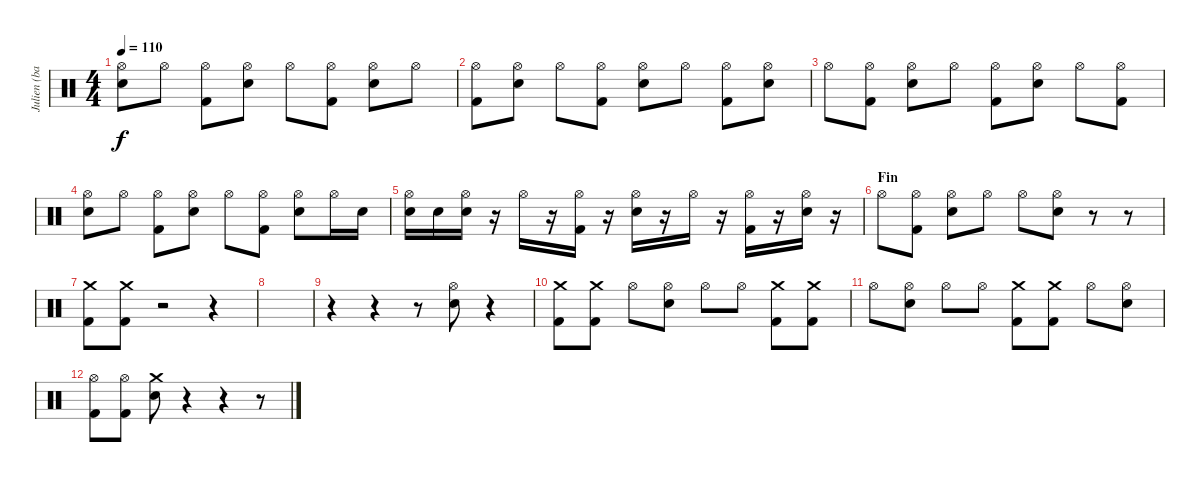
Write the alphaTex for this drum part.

\track ("Julien (batterie)" "Julien (ba") {instrument percussion}
\staff {score}
\articulation defaults
\ts (4 4)
\tempo 110
\clef neutral
\ks c
("Hi-Hat (open)" "Electric Snare (hit)").8{dy f} "Hi-Hat (open)".8 ("Hi-Hat (open)" "Kick (hit) 2").8 ("Hi-Hat (open)" "Electric Snare (hit)").8 "Hi-Hat (open)".8 ("Hi-Hat (open)" "Kick (hit) 2").8 ("Hi-Hat (open)" "Electric Snare (hit)").8 "Hi-Hat (open)".8 |
("Hi-Hat (open)" "Kick (hit) 2").8 ("Hi-Hat (open)" "Electric Snare (hit)").8 "Hi-Hat (open)".8 ("Hi-Hat (open)" "Kick (hit) 2").8 ("Hi-Hat (open)" "Electric Snare (hit)").8 "Hi-Hat (open)".8 ("Hi-Hat (open)" "Kick (hit) 2").8 ("Hi-Hat (open)" "Electric Snare (hit)").8 |
"Hi-Hat (open)".8 ("Hi-Hat (open)" "Kick (hit) 2").8 ("Hi-Hat (open)" "Electric Snare (hit)").8 "Hi-Hat (open)".8 ("Hi-Hat (open)" "Kick (hit) 2").8 ("Hi-Hat (open)" "Electric Snare (hit)").8 "Hi-Hat (open)".8 ("Hi-Hat (open)" "Kick (hit) 2").8 |
("Hi-Hat (open)" "Electric Snare (hit)").8 "Hi-Hat (open)".8 ("Hi-Hat (open)" "Kick (hit) 2").8 ("Hi-Hat (open)" "Electric Snare (hit)").8 "Hi-Hat (open)".8 ("Hi-Hat (open)" "Kick (hit) 2").8 ("Hi-Hat (open)" "Electric Snare (hit)").8 "Hi-Hat (open)".16 "Electric Snare (hit)".16 |
("Hi-Hat (open)" "Electric Snare (hit)").16 "Electric Snare (hit)".16 ("Hi-Hat (open)" "Electric Snare (hit)").16 r.16 "Hi-Hat (open)".16 r.16 ("Hi-Hat (open)" "Kick (hit) 2").16 r.16 ("Hi-Hat (open)" "Electric Snare (hit)").16 r.16 "Hi-Hat (open)".16 r.16 ("Hi-Hat (open)" "Kick (hit) 2").16 r.16 ("Hi-Hat (open)" "Electric Snare (hit)").16 r.16 |
\section ("" "Fin")
"Hi-Hat (open)".8 ("Hi-Hat (open)" "Kick (hit) 2").8 ("Hi-Hat (open)" "Electric Snare (hit)").8 "Hi-Hat (open)".8 "Hi-Hat (open)".8 ("Hi-Hat (open)" "Electric Snare (hit)").8 r.8 r.8 |
("Crash medium (hit)" "Kick (hit) 2").8 ("Crash medium (hit)" "Kick (hit) 2").8 r.2 r.4 |
|
r.4 r.4 r.8 ("Hi-Hat (open)" "Electric Snare (hit)").8 r.4 |
("Crash medium (hit)" "Kick (hit) 2").8 ("Crash medium (hit)" "Kick (hit) 2").8 "Hi-Hat (open)".8 ("Hi-Hat (open)" "Electric Snare (hit)").8 "Hi-Hat (open)".8 "Hi-Hat (open)".8 ("Crash medium (hit)" "Kick (hit) 2").8 ("Crash medium (hit)" "Kick (hit) 2").8 |
"Hi-Hat (open)".8 ("Hi-Hat (open)" "Electric Snare (hit)").8 "Hi-Hat (open)".8 "Hi-Hat (open)".8 ("Crash medium (hit)" "Kick (hit) 2").8 ("Crash medium (hit)" "Kick (hit) 2").8 "Hi-Hat (open)".8 ("Hi-Hat (open)" "Electric Snare (hit)").8 |
("Hi-Hat (open)" "Kick (hit) 2").8 ("Hi-Hat (open)" "Kick (hit) 2").8 ("Crash medium (hit)" "Electric Snare (hit)").8 r.4 r.4 r.8
